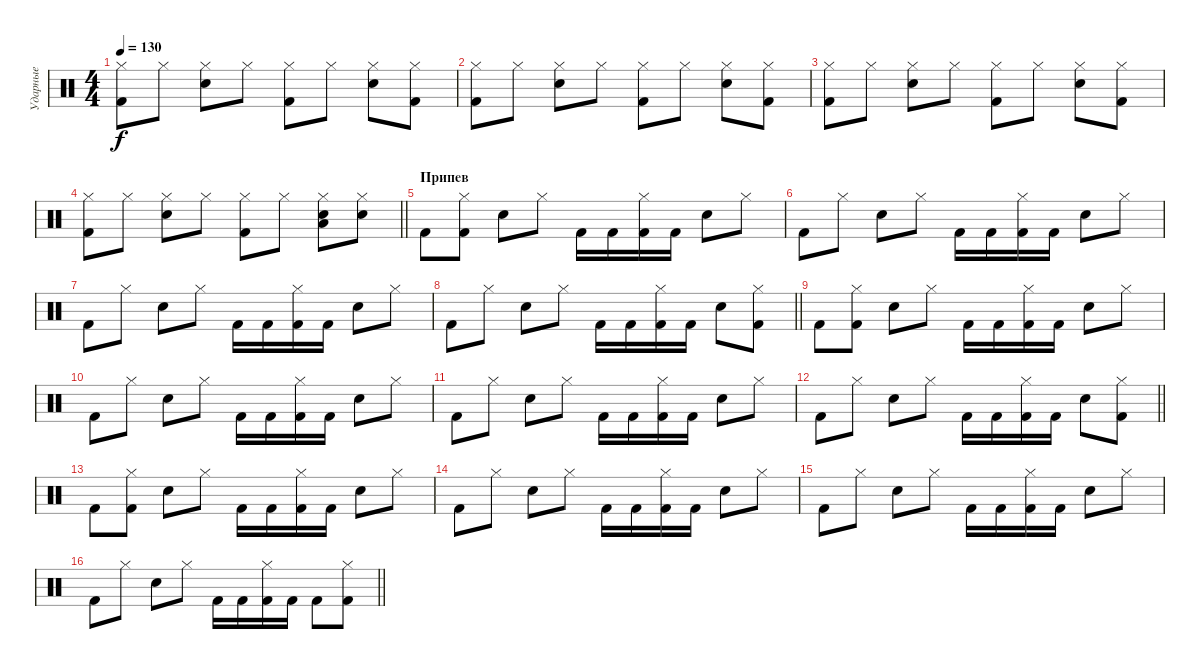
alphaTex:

\track ("Ударные" "Ударные") {instrument percussion}
\staff {score}
\articulation defaults
\ts (4 4)
\tempo 130
\clef neutral
\ks c
("Hi-Hat (closed)" "Kick (hit) 2").8{dy f} "Hi-Hat (closed)".8 ("Hi-Hat (closed)" "Electric Snare (hit)").8 "Hi-Hat (closed)".8 ("Hi-Hat (closed)" "Kick (hit) 2").8 "Hi-Hat (closed)".8 ("Hi-Hat (closed)" "Electric Snare (hit)").8 ("Hi-Hat (closed)" "Kick (hit) 2").8 |
("Hi-Hat (closed)" "Kick (hit) 2").8 "Hi-Hat (closed)".8 ("Hi-Hat (closed)" "Electric Snare (hit)").8 "Hi-Hat (closed)".8 ("Hi-Hat (closed)" "Kick (hit) 2").8 "Hi-Hat (closed)".8 ("Hi-Hat (closed)" "Electric Snare (hit)").8 ("Hi-Hat (closed)" "Kick (hit) 2").8 |
("Hi-Hat (closed)" "Kick (hit) 2").8 "Hi-Hat (closed)".8 ("Hi-Hat (closed)" "Electric Snare (hit)").8 "Hi-Hat (closed)".8 ("Hi-Hat (closed)" "Kick (hit) 2").8 "Hi-Hat (closed)".8 ("Hi-Hat (closed)" "Electric Snare (hit)").8 ("Hi-Hat (closed)" "Kick (hit) 2").8 |
\barLineRight lightlight
("Hi-Hat (closed)" "Kick (hit) 2").8 "Hi-Hat (closed)".8 ("Hi-Hat (closed)" "Electric Snare (hit)").8 "Hi-Hat (closed)".8 ("Hi-Hat (closed)" "Kick (hit) 2").8 "Hi-Hat (closed)".8 ("Hi-Hat (closed)" "Electric Snare (hit)" "Low Tom (hit)").8 ("Hi-Hat (closed)" "Electric Snare (hit)").8 |
\section ("" "Припев")
"Kick (hit) 2".8 ("Hi-Hat (closed)" "Kick (hit) 2").8 "Electric Snare (hit)".8 "Hi-Hat (closed)".8 "Kick (hit) 2".16 "Kick (hit) 2".16 ("Hi-Hat (closed)" "Kick (hit) 2").16 "Kick (hit) 2".16 "Electric Snare (hit)".8 "Hi-Hat (closed)".8 |
"Kick (hit) 2".8 "Hi-Hat (closed)".8 "Electric Snare (hit)".8 "Hi-Hat (closed)".8 "Kick (hit) 2".16 "Kick (hit) 2".16 ("Hi-Hat (closed)" "Kick (hit) 2").16 "Kick (hit) 2".16 "Electric Snare (hit)".8 "Hi-Hat (closed)".8 |
"Kick (hit) 2".8 "Hi-Hat (closed)".8 "Electric Snare (hit)".8 "Hi-Hat (closed)".8 "Kick (hit) 2".16 "Kick (hit) 2".16 ("Hi-Hat (closed)" "Kick (hit) 2").16 "Kick (hit) 2".16 "Electric Snare (hit)".8 "Hi-Hat (closed)".8 |
\barLineRight lightlight "Kick (hit) 2".8 "Hi-Hat (closed)".8 "Electric Snare (hit)".8 "Hi-Hat (closed)".8 "Kick (hit) 2".16 "Kick (hit) 2".16
("Hi-Hat (closed)" "Kick (hit) 2").16 "Kick (hit) 2".16 "Electric Snare (hit)".8 ("Hi-Hat (closed)" "Kick (hit) 2").8 |
"Kick (hit) 2".8 ("Hi-Hat (closed)" "Kick (hit) 2").8 "Electric Snare (hit)".8 "Hi-Hat (closed)".8 "Kick (hit) 2".16 "Kick (hit) 2".16 ("Hi-Hat (closed)" "Kick (hit) 2").16 "Kick (hit) 2".16 "Electric Snare (hit)".8 "Hi-Hat (closed)".8 |
"Kick (hit) 2".8 "Hi-Hat (closed)".8 "Electric Snare (hit)".8 "Hi-Hat (closed)".8 "Kick (hit) 2".16 "Kick (hit) 2".16 ("Hi-Hat (closed)" "Kick (hit) 2").16 "Kick (hit) 2".16 "Electric Snare (hit)".8 "Hi-Hat (closed)".8 |
"Kick (hit) 2".8 "Hi-Hat (closed)".8 "Electric Snare (hit)".8 "Hi-Hat (closed)".8 "Kick (hit) 2".16 "Kick (hit) 2".16 ("Hi-Hat (closed)" "Kick (hit) 2").16 "Kick (hit) 2".16 "Electric Snare (hit)".8 "Hi-Hat (closed)".8 |
\barLineRight lightlight "Kick (hit) 2".8 "Hi-Hat (closed)".8 "Electric Snare (hit)".8 "Hi-Hat (closed)".8 "Kick (hit) 2".16 "Kick (hit) 2".16
("Hi-Hat (closed)" "Kick (hit) 2").16 "Kick (hit) 2".16 "Electric Snare (hit)".8 ("Hi-Hat (closed)" "Kick (hit) 2").8 |
"Kick (hit) 2".8 ("Hi-Hat (closed)" "Kick (hit) 2").8 "Electric Snare (hit)".8 "Hi-Hat (closed)".8 "Kick (hit) 2".16 "Kick (hit) 2".16 ("Hi-Hat (closed)" "Kick (hit) 2").16 "Kick (hit) 2".16 "Electric Snare (hit)".8 "Hi-Hat (closed)".8 |
"Kick (hit) 2".8 "Hi-Hat (closed)".8 "Electric Snare (hit)".8 "Hi-Hat (closed)".8 "Kick (hit) 2".16 "Kick (hit) 2".16 ("Hi-Hat (closed)" "Kick (hit) 2").16 "Kick (hit) 2".16 "Electric Snare (hit)".8 "Hi-Hat (closed)".8 |
"Kick (hit) 2".8 "Hi-Hat (closed)".8 "Electric Snare (hit)".8 "Hi-Hat (closed)".8 "Kick (hit) 2".16 "Kick (hit) 2".16 ("Hi-Hat (closed)" "Kick (hit) 2").16 "Kick (hit) 2".16 "Electric Snare (hit)".8 "Hi-Hat (closed)".8 |
\barLineRight lightlight "Kick (hit) 2".8 "Hi-Hat (closed)".8 "Electric Snare (hit)".8 "Hi-Hat (closed)".8 "Kick (hit) 2".16 "Kick (hit) 2".16
("Hi-Hat (closed)" "Kick (hit) 2").16 "Kick (hit) 2".16 "Kick (hit) 2".8 ("Hi-Hat (closed)" "Kick (hit) 2").8
